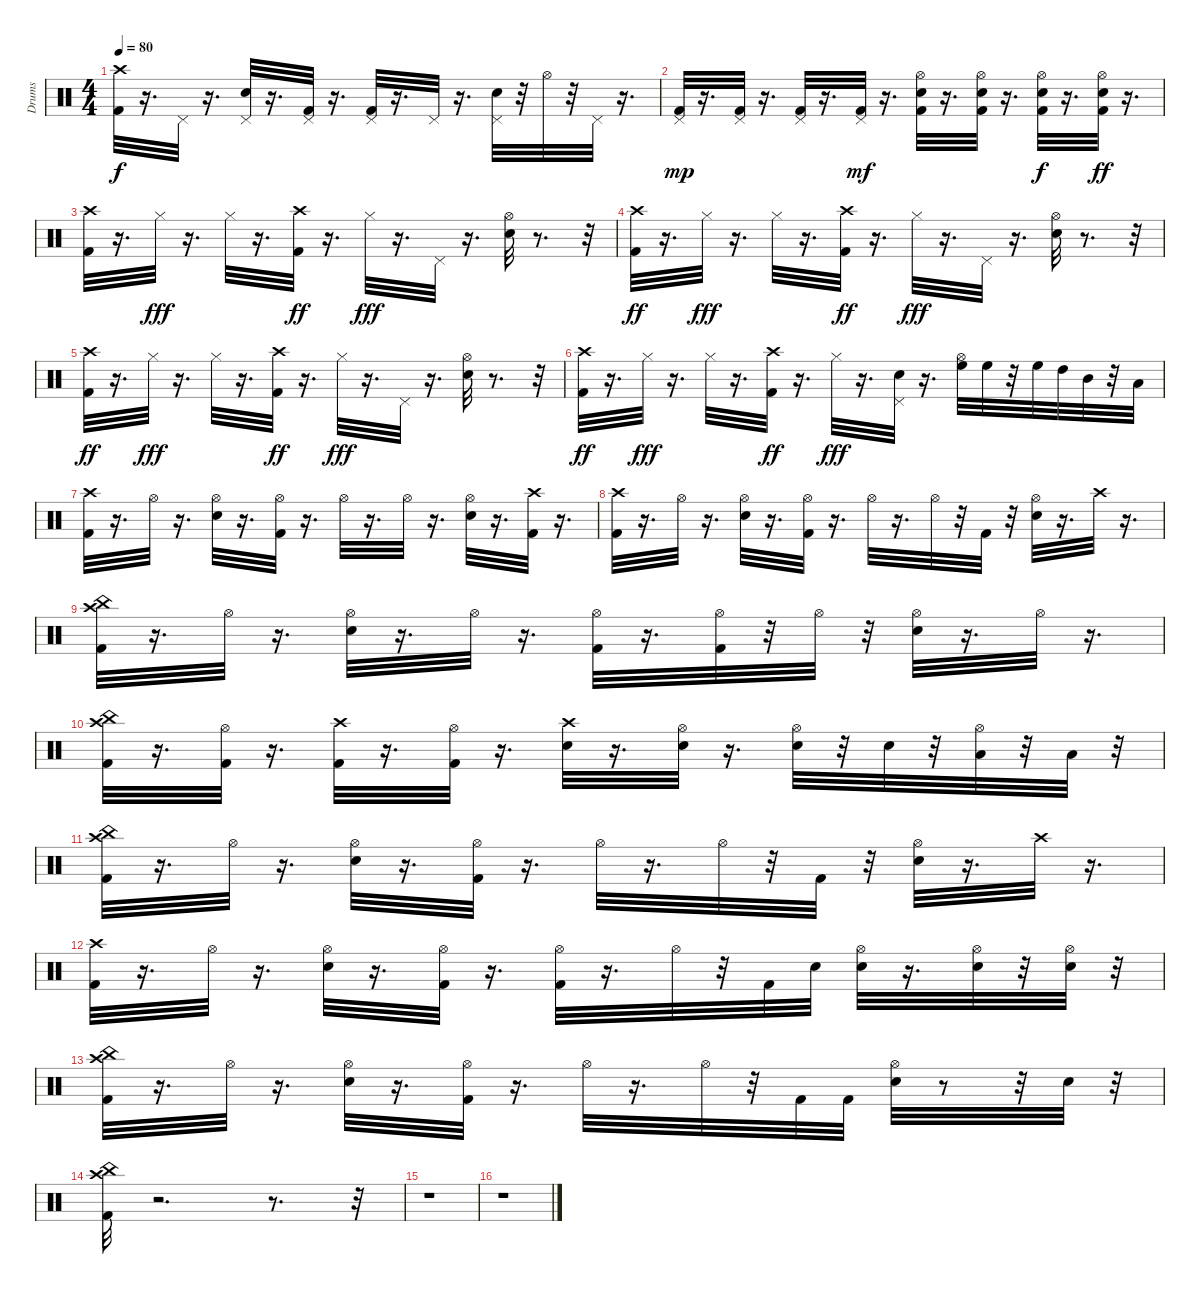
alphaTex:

\track ("Drums" "Drums") {instrument percussion}
\staff {score}
\articulation defaults
\ts (4 4)
\tempo 80
\clef neutral
\ks c
("Crash high (hit)" "Kick (hit) 2").32{dy f} r.16{d} "Pedal Hi-Hat (hit)".32 r.16{d} ("Pedal Hi-Hat (hit)" "Snare (hit) 2").32 r.16{d} ("Pedal Hi-Hat (hit)" "Kick (hit) 2").32 r.16{d} ("Pedal Hi-Hat (hit)" "Kick (hit) 2").32 r.16{d} "Pedal Hi-Hat (hit)".32 r.16{d} ("Pedal Hi-Hat (hit)" "Snare (hit) 2").32 r.32 "Hi-Hat (open)".32 r.32 "Pedal Hi-Hat (hit)".32 r.16{d} |
("Pedal Hi-Hat (hit)" "Kick (hit) 2").32{dy mp} r.16{d} ("Pedal Hi-Hat (hit)" "Kick (hit) 2").32 r.16{d} ("Pedal Hi-Hat (hit)" "Kick (hit) 2").32 r.16{d} ("Pedal Hi-Hat (hit)" "Kick (hit) 2").32{dy mf} r.16{d} ("Hi-Hat (open)" "Kick (hit) 2" "Snare (hit) 2").32 r.16{d} ("Hi-Hat (open)" "Kick (hit) 2" "Snare (hit) 2").32 r.16{d} ("Hi-Hat (open)" "Kick (hit) 2" "Snare (hit) 2").32{dy f} r.16{d} ("Snare (hit) 2" "Kick (hit) 2" "Hi-Hat (open)").32{dy ff} r.16{d} |
("Crash high (hit)" "Kick (hit) 2").32 r.16{d} "Hi-Hat (closed)".32{dy fff} r.16{d} "Hi-Hat (closed)".32 r.16{d} ("Crash high (hit)" "Kick (hit) 2").32{dy ff} r.16{d} "Hi-Hat (closed)".32{dy fff} r.16{d} "Pedal Hi-Hat (hit)".32 r.16{d} ("Hi-Hat (open)" "Snare (hit) 2").32 r.8{d} r.32 |
("Crash high (hit)" "Kick (hit) 2").32{dy ff} r.16{d} "Hi-Hat (closed)".32{dy fff} r.16{d} "Hi-Hat (closed)".32 r.16{d} ("Crash high (hit)" "Kick (hit) 2").32{dy ff} r.16{d} "Hi-Hat (closed)".32{dy fff} r.16{d} "Pedal Hi-Hat (hit)".32 r.16{d} ("Hi-Hat (open)" "Snare (hit) 2").32 r.8{d} r.32 |
("Crash high (hit)" "Kick (hit) 2").32{dy ff} r.16{d} "Hi-Hat (closed)".32{dy fff} r.16{d} "Hi-Hat (closed)".32 r.16{d} ("Crash high (hit)" "Kick (hit) 2").32{dy ff} r.16{d} "Hi-Hat (closed)".32{dy fff} r.16{d} "Pedal Hi-Hat (hit)".32 r.16{d} ("Hi-Hat (open)" "Snare (hit) 2").32 r.8{d} r.32 |
("Crash high (hit)" "Kick (hit) 2").32{dy ff} r.16{d} "Hi-Hat (closed)".32{dy fff} r.16{d} "Hi-Hat (closed)".32 r.16{d} ("Crash high (hit)" "Kick (hit) 2").32{dy ff} r.16{d} "Hi-Hat (closed)".32{dy fff} r.16{d} ("Snare (hit) 2" "Pedal Hi-Hat (hit)").32 r.16{d} ("Hi-Hat (open)" "High Floor Tom (hit)").32 "High Floor Tom (hit)".32 r.32 "High Floor Tom (hit)".32 "High Tom (hit)".32 "Mid Tom (hit)".32 r.32 "Low Tom (hit)".32 |
("Kick (hit) 2" "Crash high (hit)").32 r.16{d} "Hi-Hat (open)".32 r.16{d} ("Hi-Hat (open)" "Snare (hit) 2").32 r.16{d} ("Hi-Hat (open)" "Kick (hit) 2").32 r.16{d} "Hi-Hat (open)".32 r.16{d} "Hi-Hat (open)".32 r.16{d} ("Hi-Hat (open)" "Snare (hit) 2").32 r.16{d} ("Kick (hit) 2" "Crash high (hit)").32 r.16{d} |
("Crash high (hit)" "Kick (hit) 2").32 r.16{d} "Hi-Hat (open)".32 r.16{d} ("Hi-Hat (open)" "Snare (hit) 2").32 r.16{d} ("Hi-Hat (open)" "Kick (hit) 2").32 r.16{d} "Hi-Hat (open)".32 r.16{d} "Hi-Hat (open)".32 r.32 "Kick (hit) 2".32 r.32 ("Hi-Hat (open)" "Snare (hit) 2").32 r.16{d} "Crash high (hit)".32 r.16{d} |
("Kick (hit) 2" "China (hit)" "Crash high (hit)").32 r.16{d} "Hi-Hat (open)".32 r.16{d} ("Hi-Hat (open)" "Snare (hit) 2").32 r.16{d} "Hi-Hat (open)".32 r.16{d} ("Hi-Hat (open)" "Kick (hit) 2").32 r.16{d} ("Hi-Hat (open)" "Kick (hit) 2").32 r.32 "Hi-Hat (open)".32 r.32 ("Hi-Hat (open)" "Snare (hit) 2").32 r.16{d} "Hi-Hat (open)".32 r.16{d} |
("China (hit)" "Crash high (hit)" "Kick (hit) 2").32 r.16{d} ("Hi-Hat (open)" "Kick (hit) 2").32 r.16{d} ("Crash high (hit)" "Kick (hit) 2").32 r.16{d} ("Hi-Hat (open)" "Kick (hit) 2").32 r.16{d} ("Crash high (hit)" "Snare (hit) 2").32 r.16{d} ("Hi-Hat (open)" "Snare (hit) 2").32 r.16{d} ("Hi-Hat (open)" "Snare (hit) 2").32 r.32 "Snare (hit) 2".32 r.32 ("Hi-Hat (open)" "Low Tom (hit)").32 r.32 "Low Tom (hit)".32 r.32 |
("Kick (hit) 2" "China (hit)" "Crash high (hit)").32 r.16{d} "Hi-Hat (open)".32 r.16{d} ("Hi-Hat (open)" "Snare (hit) 2").32 r.16{d} ("Hi-Hat (open)" "Kick (hit) 2").32 r.16{d} "Hi-Hat (open)".32 r.16{d} "Hi-Hat (open)".32 r.32 "Kick (hit) 2".32 r.32 ("Hi-Hat (open)" "Snare (hit) 2").32 r.16{d} "Crash high (hit)".32 r.16{d} |
("Kick (hit) 2" "Crash high (hit)").32 r.16{d} "Hi-Hat (open)".32 r.16{d} ("Snare (hit) 2" "Hi-Hat (open)").32 r.16{d} ("Kick (hit) 2" "Hi-Hat (open)").32 r.16{d} ("Kick (hit) 2" "Hi-Hat (open)").32 r.16{d} "Hi-Hat (open)".32 r.32 "Kick (hit) 2".32 "Snare (hit) 2".32 ("Snare (hit) 2" "Hi-Hat (open)").32 r.16{d} ("Snare (hit) 2" "Hi-Hat (open)").32 r.32 ("Snare (hit) 2" "Hi-Hat (open)").32 r.32 |
("China (hit)" "Crash high (hit)" "Kick (hit) 2").32 r.16{d} "Hi-Hat (open)".32 r.16{d} ("Hi-Hat (open)" "Snare (hit) 2").32 r.16{d} ("Hi-Hat (open)" "Kick (hit) 2").32 r.16{d} "Hi-Hat (open)".32 r.16{d} "Hi-Hat (open)".32 r.32 "Kick (hit) 2".32 "Kick (hit) 2".32 ("Hi-Hat (open)" "Snare (hit) 2").32 r.8 r.32 "Snare (hit) 2".32 r.32 |
("China (hit)" "Crash high (hit)" "Kick (hit) 2").32 r.2{d} r.8{d} r.32 |
r.1 |
r.1
